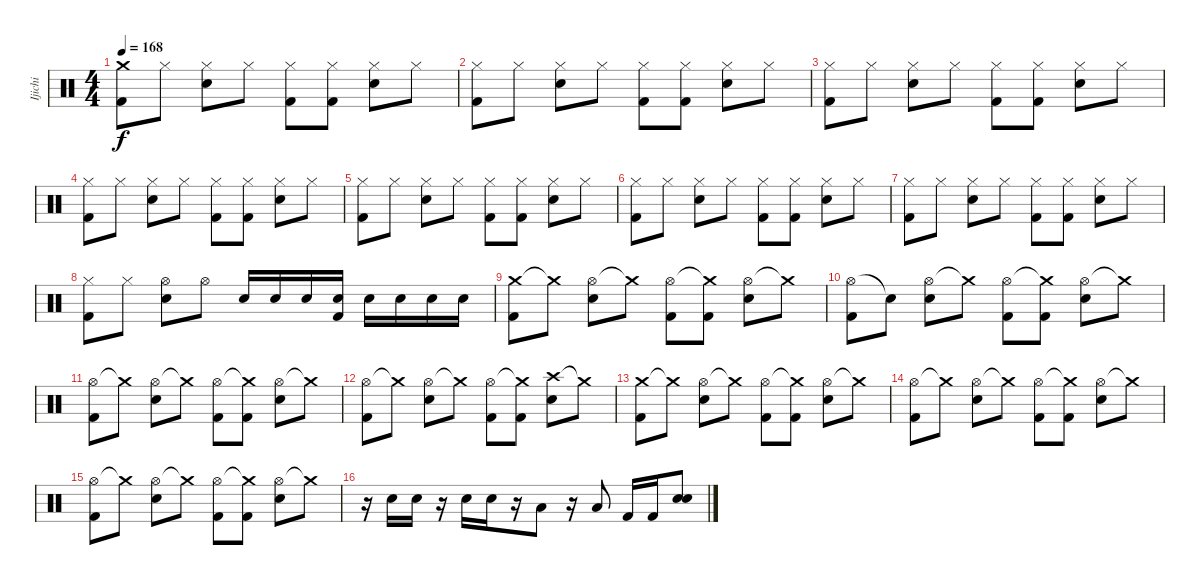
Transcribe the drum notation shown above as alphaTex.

\track ("Ijichi" "Ijichi") {instrument percussion}
\staff {score}
\articulation defaults
\ts (4 4)
\tempo 168
\clef neutral
\ks c
("Crash medium (hit)" "Kick (hit) 2").8{dy f} "Hi-Hat (closed)".8 ("Hi-Hat (closed)" "Electric Snare (hit)").8 "Hi-Hat (closed)".8 ("Hi-Hat (closed)" "Kick (hit) 2").8 ("Hi-Hat (closed)" "Kick (hit) 2").8 ("Hi-Hat (closed)" "Electric Snare (hit)").8 "Hi-Hat (closed)".8 |
("Hi-Hat (closed)" "Kick (hit) 2").8 "Hi-Hat (closed)".8 ("Hi-Hat (closed)" "Electric Snare (hit)").8 "Hi-Hat (closed)".8 ("Hi-Hat (closed)" "Kick (hit) 2").8 ("Hi-Hat (closed)" "Kick (hit) 2").8 ("Hi-Hat (closed)" "Electric Snare (hit)").8 "Hi-Hat (closed)".8 |
("Hi-Hat (closed)" "Kick (hit) 2").8 "Hi-Hat (closed)".8 ("Hi-Hat (closed)" "Electric Snare (hit)").8 "Hi-Hat (closed)".8 ("Hi-Hat (closed)" "Kick (hit) 2").8 ("Hi-Hat (closed)" "Kick (hit) 2").8 ("Hi-Hat (closed)" "Electric Snare (hit)").8 "Hi-Hat (closed)".8 |
("Hi-Hat (closed)" "Kick (hit) 2").8 "Hi-Hat (closed)".8 ("Hi-Hat (closed)" "Electric Snare (hit)").8 "Hi-Hat (closed)".8 ("Hi-Hat (closed)" "Kick (hit) 2").8 ("Hi-Hat (closed)" "Kick (hit) 2").8 ("Hi-Hat (closed)" "Electric Snare (hit)").8 "Hi-Hat (closed)".8 |
("Hi-Hat (closed)" "Kick (hit) 2").8 "Hi-Hat (closed)".8 ("Hi-Hat (closed)" "Electric Snare (hit)").8 "Hi-Hat (closed)".8 ("Hi-Hat (closed)" "Kick (hit) 2").8 ("Hi-Hat (closed)" "Kick (hit) 2").8 ("Hi-Hat (closed)" "Electric Snare (hit)").8 "Hi-Hat (closed)".8 |
("Hi-Hat (closed)" "Kick (hit) 2").8 "Hi-Hat (closed)".8 ("Hi-Hat (closed)" "Electric Snare (hit)").8 "Hi-Hat (closed)".8 ("Hi-Hat (closed)" "Kick (hit) 2").8 ("Hi-Hat (closed)" "Kick (hit) 2").8 ("Hi-Hat (closed)" "Electric Snare (hit)").8 "Hi-Hat (closed)".8 |
("Hi-Hat (closed)" "Kick (hit) 2").8 "Hi-Hat (closed)".8 ("Hi-Hat (closed)" "Electric Snare (hit)").8 "Hi-Hat (closed)".8 ("Hi-Hat (closed)" "Kick (hit) 2").8 ("Hi-Hat (closed)" "Kick (hit) 2").8 ("Hi-Hat (closed)" "Electric Snare (hit)").8 "Hi-Hat (closed)".8 |
("Hi-Hat (closed)" "Kick (hit) 2").8 "Hi-Hat (closed)".8 ("Hi-Hat (open)" "Electric Snare (hit)").8 "Hi-Hat (open)".8 "Electric Snare (hit)".16 "Electric Snare (hit)".16 "Electric Snare (hit)".16 ("Electric Snare (hit)" "Kick (hit) 2").16 "Electric Snare (hit)".16 "Electric Snare (hit)".16 "Electric Snare (hit)".16 "Electric Snare (hit)".16 |
("Crash medium (hit)" "Kick (hit) 2").8 "Crash medium (hit)"{t}.8 ("Hi-Hat (open)" "Electric Snare (hit)").8 "Crash medium (hit)"{t}.8 ("Hi-Hat (open)" "Kick (hit) 2").8 ("Crash medium (hit)"{t} "Kick (hit) 2").8 ("Hi-Hat (open)" "Electric Snare (hit)").8 "Crash medium (hit)"{t}.8 |
("Hi-Hat (open)" "Kick (hit) 2").8 "Snare (hit)"{t}.8 ("Hi-Hat (open)" "Electric Snare (hit)").8 "Crash medium (hit)"{t}.8 ("Hi-Hat (open)" "Kick (hit) 2").8 ("Crash medium (hit)"{t} "Kick (hit) 2").8 ("Hi-Hat (open)" "Electric Snare (hit)").8 "Crash medium (hit)"{t}.8 |
("Hi-Hat (open)" "Kick (hit) 2").8 "Crash medium (hit)"{t}.8 ("Hi-Hat (open)" "Electric Snare (hit)").8 "Crash medium (hit)"{t}.8 ("Hi-Hat (open)" "Kick (hit) 2").8 ("Crash medium (hit)"{t} "Kick (hit) 2").8 ("Hi-Hat (open)" "Electric Snare (hit)").8 "Crash medium (hit)"{t}.8 |
("Hi-Hat (open)" "Kick (hit) 2").8 "Crash medium (hit)"{t}.8 ("Hi-Hat (open)" "Electric Snare (hit)").8 "Crash medium (hit)"{t}.8 ("Hi-Hat (open)" "Kick (hit) 2").8 ("Crash medium (hit)"{t} "Kick (hit) 2").8 ("Crash high (hit)" "Electric Snare (hit)").8 "Crash medium (hit)"{t}.8 |
("Crash medium (hit)" "Kick (hit) 2").8 "Crash medium (hit)"{t}.8 ("Hi-Hat (open)" "Electric Snare (hit)").8 "Crash medium (hit)"{t}.8 ("Hi-Hat (open)" "Kick (hit) 2").8 ("Crash medium (hit)"{t} "Kick (hit) 2").8 ("Hi-Hat (open)" "Electric Snare (hit)").8 "Crash medium (hit)"{t}.8 |
("Hi-Hat (open)" "Kick (hit) 2").8 "Crash medium (hit)"{t}.8 ("Hi-Hat (open)" "Electric Snare (hit)").8 "Crash medium (hit)"{t}.8 ("Hi-Hat (open)" "Kick (hit) 2").8 ("Crash medium (hit)"{t} "Kick (hit) 2").8 ("Hi-Hat (open)" "Electric Snare (hit)").8 "Crash medium (hit)"{t}.8 |
("Hi-Hat (open)" "Kick (hit) 2").8 "Crash medium (hit)"{t}.8 ("Hi-Hat (open)" "Electric Snare (hit)").8 "Crash medium (hit)"{t}.8 ("Hi-Hat (open)" "Kick (hit) 2").8 ("Crash medium (hit)"{t} "Kick (hit) 2").8 ("Hi-Hat (open)" "Electric Snare (hit)").8 "Crash medium (hit)"{t}.8 |
r.16 "Electric Snare (hit)".16 "Electric Snare (hit)".16 r.16 "Electric Snare (hit)".16 "Electric Snare (hit)".16 r.16 "Low Floor Tom (hit)".8 r.16 "Low Floor Tom (hit)".8 "Kick (hit) 2".16 "Kick (hit) 2".16 ("Electric Snare (hit)" "Electric Snare (hit)").8
